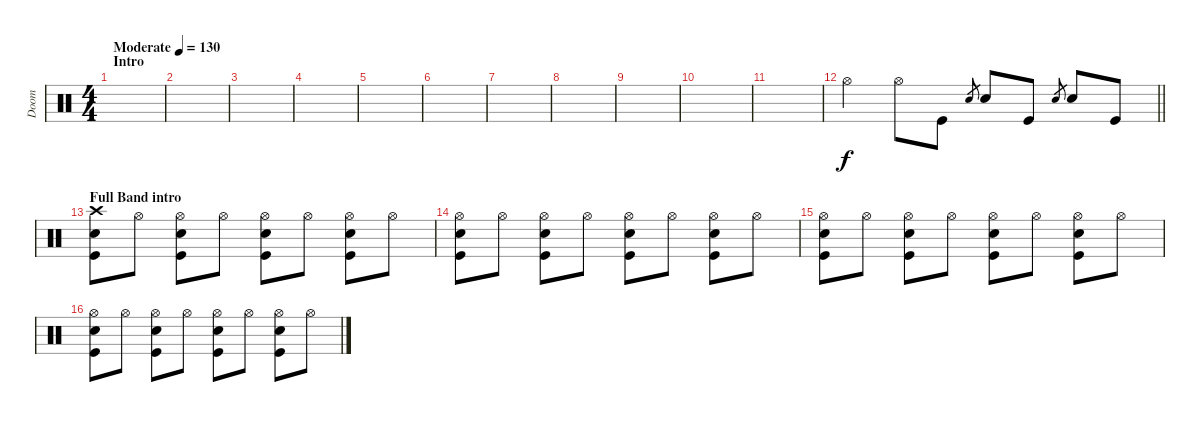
\track ("Doom" "Doom") {instrument percussion}
\staff {score}
\articulation defaults
\ts (4 4)
\section ("" "Intro")
\tempo (130 "Moderate")
\clef neutral
\ks c
|
|
|
|
|
|
|
|
|
|
|
\barLineRight lightlight "Hi-Hat (open)".4 "Hi-Hat (open)".8 "Kick (hit)".8 "Electric Snare (hit)".8{gr} "Electric Snare (hit)".8 "Kick (hit)".8 "Electric Snare (hit)".8{gr} "Electric Snare (hit)".8 "Kick (hit)".8
|
\section ("" "Full Band intro")
("Crash high (hit)" "Electric Snare (hit)" "Kick (hit)").8 "Hi-Hat (open)".8 ("Hi-Hat (open)" "Electric Snare (hit)" "Kick (hit)").8 "Hi-Hat (open)".8 ("Hi-Hat (open)" "Electric Snare (hit)" "Kick (hit)").8 "Hi-Hat (open)".8 ("Hi-Hat (open)" "Electric Snare (hit)" "Kick (hit)").8 "Hi-Hat (open)".8 |
("Hi-Hat (open)" "Electric Snare (hit)" "Kick (hit)").8 "Hi-Hat (open)".8 ("Hi-Hat (open)" "Electric Snare (hit)" "Kick (hit)").8 "Hi-Hat (open)".8 ("Hi-Hat (open)" "Electric Snare (hit)" "Kick (hit)").8 "Hi-Hat (open)".8 ("Hi-Hat (open)" "Electric Snare (hit)" "Kick (hit)").8 "Hi-Hat (open)".8 |
("Hi-Hat (open)" "Electric Snare (hit)" "Kick (hit)").8 "Hi-Hat (open)".8 ("Hi-Hat (open)" "Electric Snare (hit)" "Kick (hit)").8 "Hi-Hat (open)".8 ("Hi-Hat (open)" "Electric Snare (hit)" "Kick (hit)").8 "Hi-Hat (open)".8 ("Hi-Hat (open)" "Electric Snare (hit)" "Kick (hit)").8 "Hi-Hat (open)".8 |
("Hi-Hat (open)" "Electric Snare (hit)" "Kick (hit)").8 "Hi-Hat (open)".8 ("Hi-Hat (open)" "Electric Snare (hit)" "Kick (hit)").8 "Hi-Hat (open)".8 ("Hi-Hat (open)" "Electric Snare (hit)" "Kick (hit)").8 "Hi-Hat (open)".8 ("Hi-Hat (open)" "Electric Snare (hit)" "Kick (hit)").8 "Hi-Hat (open)".8
